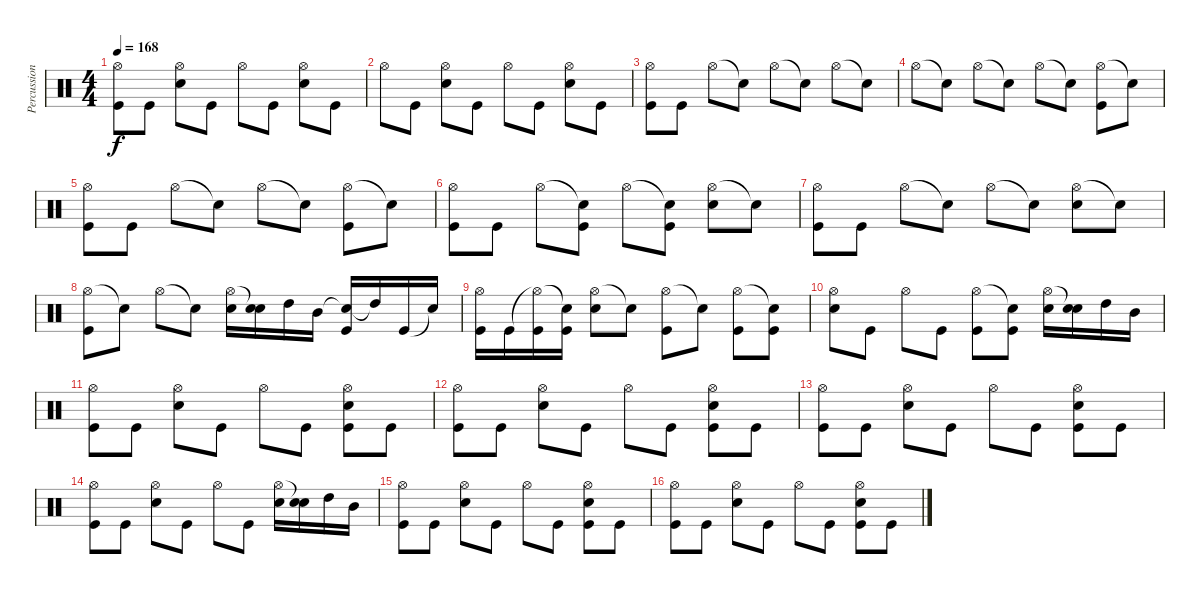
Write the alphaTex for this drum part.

\track ("Percussions" "Percussion") {instrument percussion}
\staff {score}
\articulation defaults
\ts (4 4)
\tempo 168
\clef neutral
\ks c
("Hi-Hat (open)" "Kick (hit)").8{dy f} "Kick (hit)".8 ("Hi-Hat (open)" "Snare (hit) 2").8 "Kick (hit)".8 "Hi-Hat (open)".8 "Kick (hit)".8 ("Hi-Hat (open)" "Snare (hit) 2").8 "Kick (hit)".8 |
"Hi-Hat (open)".8 "Kick (hit)".8 ("Hi-Hat (open)" "Snare (hit) 2").8 "Kick (hit)".8 "Hi-Hat (open)".8 "Kick (hit)".8 ("Hi-Hat (open)" "Snare (hit) 2").8 "Kick (hit)".8 |
("Hi-Hat (open)" "Kick (hit)").8 "Kick (hit)".8 "Hi-Hat (open)".8 "Snare (hit)"{t}.8 "Hi-Hat (open)".8 "Snare (hit)"{t}.8 "Hi-Hat (open)".8 "Snare (hit)"{t}.8 |
"Hi-Hat (open)".8 "Snare (hit)"{t}.8 "Hi-Hat (open)".8 "Snare (hit)"{t}.8 "Hi-Hat (open)".8 "Snare (hit)"{t}.8 ("Hi-Hat (open)" "Kick (hit)").8 "Snare (hit)"{t}.8 |
("Hi-Hat (open)" "Kick (hit)").8 "Kick (hit)".8 "Hi-Hat (open)".8 "Snare (hit)"{t}.8 "Hi-Hat (open)".8 "Snare (hit)"{t}.8 ("Hi-Hat (open)" "Kick (hit)").8 "Snare (hit)"{t}.8 |
("Hi-Hat (open)" "Kick (hit)").8 "Kick (hit)".8 "Hi-Hat (open)".8 ("Snare (hit)"{t} "Kick (hit)").8 "Hi-Hat (open)".8 ("Snare (hit)"{t} "Kick (hit)").8 ("Hi-Hat (open)" "Snare (hit) 2").8 "Snare (hit)"{t}.8 |
("Hi-Hat (open)" "Kick (hit)").8 "Kick (hit)".8 "Hi-Hat (open)".8 "Snare (hit)"{t}.8 "Hi-Hat (open)".8 "Snare (hit)"{t}.8 ("Hi-Hat (open)" "Snare (hit) 2").8 "Snare (hit)"{t}.8 |
("Hi-Hat (open)" "Kick (hit)").8 "Snare (hit)"{t}.8 "Hi-Hat (open)".8 "Snare (hit)"{t}.8 ("Hi-Hat (open)" "Snare (hit) 2").16 ("Snare (hit)"{t} "Snare (hit) 2").16 "High Tom (hit)".16 "Mid Tom (hit)".16 ("Snare (hit)"{t} "Kick (hit)").16 "High Tom (hit)"{t}.16 "Kick (hit)".16 "Snare (hit)"{t}.16 |
("Hi-Hat (open)" "Kick (hit)").16 "Kick (hit)".16 ("Hi-Hat (open)"{t} "Kick (hit)").16 ("Snare (hit)"{t} "Kick (hit)").16 ("Hi-Hat (open)" "Snare (hit) 2").8 "Snare (hit)"{t}.8 ("Hi-Hat (open)" "Kick (hit)").8 "Snare (hit)"{t}.8 ("Hi-Hat (open)" "Kick (hit)").8 ("Snare (hit)"{t} "Kick (hit)").8 |
("Hi-Hat (open)" "Snare (hit) 2").8 "Kick (hit)".8 "Hi-Hat (open)".8 "Kick (hit)".8 ("Hi-Hat (open)" "Kick (hit)").8 ("Snare (hit)"{t} "Kick (hit)").8 ("Hi-Hat (open)" "Snare (hit) 2").16 ("Snare (hit)"{t} "Snare (hit) 2").16 "High Tom (hit)".16 "Mid Tom (hit)".16 |
("Hi-Hat (open)" "Kick (hit)").8 "Kick (hit)".8 ("Hi-Hat (open)" "Snare (hit) 2").8 "Kick (hit)".8 "Hi-Hat (open)".8 "Kick (hit)".8 ("Hi-Hat (open)" "Kick (hit)" "Snare (hit) 2").8 "Kick (hit)".8 |
("Hi-Hat (open)" "Kick (hit)").8 "Kick (hit)".8 ("Hi-Hat (open)" "Snare (hit) 2").8 "Kick (hit)".8 "Hi-Hat (open)".8 "Kick (hit)".8 ("Hi-Hat (open)" "Kick (hit)" "Snare (hit) 2").8 "Kick (hit)".8 |
("Hi-Hat (open)" "Kick (hit)").8 "Kick (hit)".8 ("Hi-Hat (open)" "Snare (hit) 2").8 "Kick (hit)".8 "Hi-Hat (open)".8 "Kick (hit)".8 ("Hi-Hat (open)" "Kick (hit)" "Snare (hit) 2").8 "Kick (hit)".8 |
("Hi-Hat (open)" "Kick (hit)").8 "Kick (hit)".8 ("Hi-Hat (open)" "Snare (hit) 2").8 "Kick (hit)".8 "Hi-Hat (open)".8 "Kick (hit)".8 ("Hi-Hat (open)" "Snare (hit) 2").16 ("Snare (hit)"{t} "Snare (hit) 2").16 "High Tom (hit)".16 "Mid Tom (hit)".16 |
("Hi-Hat (open)" "Kick (hit)").8 "Kick (hit)".8 ("Hi-Hat (open)" "Snare (hit) 2").8 "Kick (hit)".8 "Hi-Hat (open)".8 "Kick (hit)".8 ("Hi-Hat (open)" "Kick (hit)" "Snare (hit) 2").8 "Kick (hit)".8 |
("Hi-Hat (open)" "Kick (hit)").8 "Kick (hit)".8 ("Hi-Hat (open)" "Snare (hit) 2").8 "Kick (hit)".8 "Hi-Hat (open)".8 "Kick (hit)".8 ("Hi-Hat (open)" "Kick (hit)" "Snare (hit) 2").8 "Kick (hit)".8
